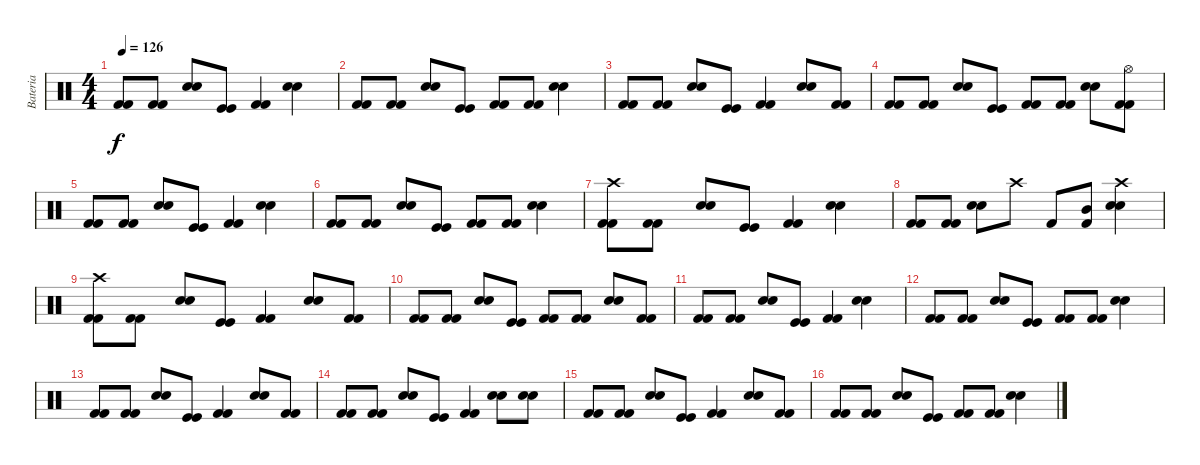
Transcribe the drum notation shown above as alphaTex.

\track ("Bateria" "Bateria") {instrument percussion}
\staff {score}
\articulation defaults
\ts (4 4)
\tempo 126
\clef neutral
\ks c
("Kick (hit) 2" "Kick (hit) 2").8{dy f} ("Kick (hit) 2" "Kick (hit) 2").8 ("Electric Snare (hit)" "Snare (hit) 2").8 ("Kick (hit)" "Kick (hit)").8 ("Kick (hit) 2" "Kick (hit) 2").4 ("Electric Snare (hit)" "Snare (hit) 2").4 |
("Kick (hit) 2" "Kick (hit) 2").8 ("Kick (hit) 2" "Kick (hit) 2").8 ("Electric Snare (hit)" "Snare (hit) 2").8 ("Kick (hit)" "Kick (hit)").8 ("Kick (hit) 2" "Kick (hit) 2").8 ("Kick (hit) 2" "Kick (hit) 2").8 ("Electric Snare (hit)" "Snare (hit) 2").4 |
("Kick (hit) 2" "Kick (hit) 2").8 ("Kick (hit) 2" "Kick (hit) 2").8 ("Electric Snare (hit)" "Snare (hit) 2").8 ("Kick (hit)" "Kick (hit)").8 ("Kick (hit) 2" "Kick (hit) 2").4 ("Electric Snare (hit)" "Snare (hit) 2").8 ("Kick (hit) 2" "Kick (hit) 2").8 |
("Kick (hit) 2" "Kick (hit) 2").8 ("Kick (hit) 2" "Kick (hit) 2").8 ("Electric Snare (hit)" "Snare (hit) 2").8 ("Kick (hit)" "Kick (hit)").8 ("Kick (hit) 2" "Kick (hit) 2").8 ("Kick (hit) 2" "Kick (hit) 2").8 ("Electric Snare (hit)" "Snare (hit) 2").8 ("Hi-Hat (open)" "Kick (hit) 2" "Kick (hit) 2").8 |
("Kick (hit) 2" "Kick (hit) 2").8 ("Kick (hit) 2" "Kick (hit) 2").8 ("Electric Snare (hit)" "Snare (hit) 2").8 ("Kick (hit)" "Kick (hit)").8 ("Kick (hit) 2" "Kick (hit) 2").4 ("Electric Snare (hit)" "Snare (hit) 2").4 |
("Kick (hit) 2" "Kick (hit) 2").8 ("Kick (hit) 2" "Kick (hit) 2").8 ("Electric Snare (hit)" "Snare (hit) 2").8 ("Kick (hit)" "Kick (hit)").8 ("Kick (hit) 2" "Kick (hit) 2").8 ("Kick (hit) 2" "Kick (hit) 2").8 ("Electric Snare (hit)" "Snare (hit) 2").4 |
("Crash high (hit)" "Kick (hit) 2" "Kick (hit) 2").8 ("Kick (hit) 2" "Kick (hit) 2").8 ("Electric Snare (hit)" "Snare (hit) 2").8 ("Kick (hit)" "Kick (hit)").8 ("Kick (hit) 2" "Kick (hit) 2").4 ("Electric Snare (hit)" "Snare (hit) 2").4 |
("Kick (hit) 2" "Kick (hit) 2").8 ("Kick (hit) 2" "Kick (hit) 2").8 ("Electric Snare (hit)" "Snare (hit) 2").8 "Crash high (hit)".8 "Kick (hit) 2".8 ("Mid Tom (hit)" "Kick (hit) 2").8 ("Crash high (hit)" "Electric Snare (hit)" "Snare (hit) 2").4 |
("Crash high (hit)" "Kick (hit) 2" "Kick (hit) 2").8 ("Kick (hit) 2" "Kick (hit) 2").8 ("Electric Snare (hit)" "Snare (hit) 2").8 ("Kick (hit)" "Kick (hit)").8 ("Kick (hit) 2" "Kick (hit) 2").4 ("Electric Snare (hit)" "Snare (hit) 2").8 ("Kick (hit) 2" "Kick (hit) 2").8 |
("Kick (hit) 2" "Kick (hit) 2").8 ("Kick (hit) 2" "Kick (hit) 2").8 ("Electric Snare (hit)" "Snare (hit) 2").8 ("Kick (hit)" "Kick (hit)").8 ("Kick (hit) 2" "Kick (hit) 2").8 ("Kick (hit) 2" "Kick (hit) 2").8 ("Electric Snare (hit)" "Snare (hit) 2").8 ("Kick (hit) 2" "Kick (hit) 2").8 |
("Kick (hit) 2" "Kick (hit) 2").8 ("Kick (hit) 2" "Kick (hit) 2").8 ("Electric Snare (hit)" "Snare (hit) 2").8 ("Kick (hit)" "Kick (hit)").8 ("Kick (hit) 2" "Kick (hit) 2").4 ("Electric Snare (hit)" "Snare (hit) 2").4 |
("Kick (hit) 2" "Kick (hit) 2").8 ("Kick (hit) 2" "Kick (hit) 2").8 ("Electric Snare (hit)" "Snare (hit) 2").8 ("Kick (hit)" "Kick (hit)").8 ("Kick (hit) 2" "Kick (hit) 2").8 ("Kick (hit) 2" "Kick (hit) 2").8 ("Electric Snare (hit)" "Snare (hit) 2").4 |
("Kick (hit) 2" "Kick (hit) 2").8 ("Kick (hit) 2" "Kick (hit) 2").8 ("Electric Snare (hit)" "Snare (hit) 2").8 ("Kick (hit)" "Kick (hit)").8 ("Kick (hit) 2" "Kick (hit) 2").4 ("Electric Snare (hit)" "Snare (hit) 2").8 ("Kick (hit) 2" "Kick (hit) 2").8 |
("Kick (hit) 2" "Kick (hit) 2").8 ("Kick (hit) 2" "Kick (hit) 2").8 ("Electric Snare (hit)" "Snare (hit) 2").8 ("Kick (hit)" "Kick (hit)").8 ("Kick (hit) 2" "Kick (hit) 2").4 ("Electric Snare (hit)" "Snare (hit) 2").8 ("Electric Snare (hit)" "Snare (hit) 2").8 |
("Kick (hit) 2" "Kick (hit) 2").8 ("Kick (hit) 2" "Kick (hit) 2").8 ("Electric Snare (hit)" "Snare (hit) 2").8 ("Kick (hit)" "Kick (hit)").8 ("Kick (hit) 2" "Kick (hit) 2").4 ("Electric Snare (hit)" "Snare (hit) 2").8 ("Kick (hit) 2" "Kick (hit) 2").8 |
("Kick (hit) 2" "Kick (hit) 2").8 ("Kick (hit) 2" "Kick (hit) 2").8 ("Electric Snare (hit)" "Snare (hit) 2").8 ("Kick (hit)" "Kick (hit)").8 ("Kick (hit) 2" "Kick (hit) 2").8 ("Kick (hit) 2" "Kick (hit) 2").8 ("Electric Snare (hit)" "Snare (hit) 2").4
